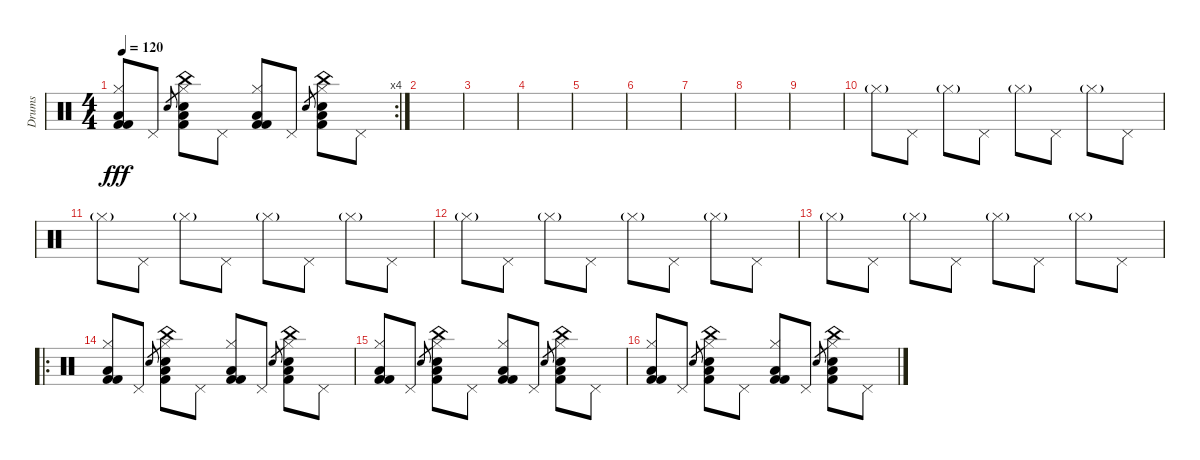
\track ("Drums" "Drums") {instrument percussion}
\staff {score}
\articulation defaults
\rc 4
\ts (4 4)
\tempo 120
\clef neutral
\ks c
("Kick (hit) 2" "Hi-Hat (closed)" "Low Floor Tom (hit)" "Kick (hit) 2").8{dy fff} "Pedal Hi-Hat (hit)".8 "Hand Clap (hit)".8{gr} ("Kick (hit) 2" "Hi-Hat (closed)" "Electric Snare (hit)" "China (hit)" "Low Floor Tom (hit)").8 "Pedal Hi-Hat (hit)".8 ("Kick (hit) 2" "Hi-Hat (closed)" "Low Floor Tom (hit)" "Kick (hit) 2").8 "Pedal Hi-Hat (hit)".8 "Hand Clap (hit)".8{gr} ("Kick (hit) 2" "Hi-Hat (closed)" "Electric Snare (hit)" "China (hit)" "Low Floor Tom (hit)").8 "Pedal Hi-Hat (hit)".8 |
|
|
|
|
|
|
|
|
"Hi-Hat (closed)"{g}.8{volume 10} "Pedal Hi-Hat (hit)".8 "Hi-Hat (closed)"{g}.8 "Pedal Hi-Hat (hit)".8 "Hi-Hat (closed)"{g}.8 "Pedal Hi-Hat (hit)".8 "Hi-Hat (closed)"{g}.8 "Pedal Hi-Hat (hit)".8 |
"Hi-Hat (closed)"{g}.8 "Pedal Hi-Hat (hit)".8 "Hi-Hat (closed)"{g}.8 "Pedal Hi-Hat (hit)".8 "Hi-Hat (closed)"{g}.8 "Pedal Hi-Hat (hit)".8 "Hi-Hat (closed)"{g}.8 "Pedal Hi-Hat (hit)".8 |
"Hi-Hat (closed)"{g}.8 "Pedal Hi-Hat (hit)".8 "Hi-Hat (closed)"{g}.8 "Pedal Hi-Hat (hit)".8 "Hi-Hat (closed)"{g}.8 "Pedal Hi-Hat (hit)".8 "Hi-Hat (closed)"{g}.8 "Pedal Hi-Hat (hit)".8 |
"Hi-Hat (closed)"{g}.8 "Pedal Hi-Hat (hit)".8 "Hi-Hat (closed)"{g}.8 "Pedal Hi-Hat (hit)".8 "Hi-Hat (closed)"{g}.8 "Pedal Hi-Hat (hit)".8 "Hi-Hat (closed)"{g}.8 "Pedal Hi-Hat (hit)".8 |
\ro
("Kick (hit) 2" "Hi-Hat (closed)" "Low Floor Tom (hit)" "Kick (hit) 2").8{volume 16} "Pedal Hi-Hat (hit)".8 "Hand Clap (hit)".8{gr} ("Kick (hit) 2" "Hi-Hat (closed)" "Electric Snare (hit)" "China (hit)" "Low Floor Tom (hit)").8 "Pedal Hi-Hat (hit)".8 ("Kick (hit) 2" "Hi-Hat (closed)" "Low Floor Tom (hit)" "Kick (hit) 2").8 "Pedal Hi-Hat (hit)".8 "Hand Clap (hit)".8{gr} ("Kick (hit) 2" "Hi-Hat (closed)" "Electric Snare (hit)" "China (hit)" "Low Floor Tom (hit)").8 "Pedal Hi-Hat (hit)".8 |
("Kick (hit) 2" "Hi-Hat (closed)" "Low Floor Tom (hit)" "Kick (hit) 2").8 "Pedal Hi-Hat (hit)".8 "Hand Clap (hit)".8{gr} ("Kick (hit) 2" "Hi-Hat (closed)" "Electric Snare (hit)" "China (hit)" "Low Floor Tom (hit)").8 "Pedal Hi-Hat (hit)".8 ("Kick (hit) 2" "Hi-Hat (closed)" "Low Floor Tom (hit)" "Kick (hit) 2").8 "Pedal Hi-Hat (hit)".8 "Hand Clap (hit)".8{gr} ("Kick (hit) 2" "Hi-Hat (closed)" "Electric Snare (hit)" "China (hit)" "Low Floor Tom (hit)").8 "Pedal Hi-Hat (hit)".8 |
("Kick (hit) 2" "Hi-Hat (closed)" "Low Floor Tom (hit)" "Kick (hit) 2").8 "Pedal Hi-Hat (hit)".8 "Hand Clap (hit)".8{gr} ("Kick (hit) 2" "Hi-Hat (closed)" "Electric Snare (hit)" "China (hit)" "Low Floor Tom (hit)").8 "Pedal Hi-Hat (hit)".8 ("Kick (hit) 2" "Hi-Hat (closed)" "Low Floor Tom (hit)" "Kick (hit) 2").8 "Pedal Hi-Hat (hit)".8 "Hand Clap (hit)".8{gr} ("Kick (hit) 2" "Hi-Hat (closed)" "Electric Snare (hit)" "China (hit)" "Low Floor Tom (hit)").8 "Pedal Hi-Hat (hit)".8
